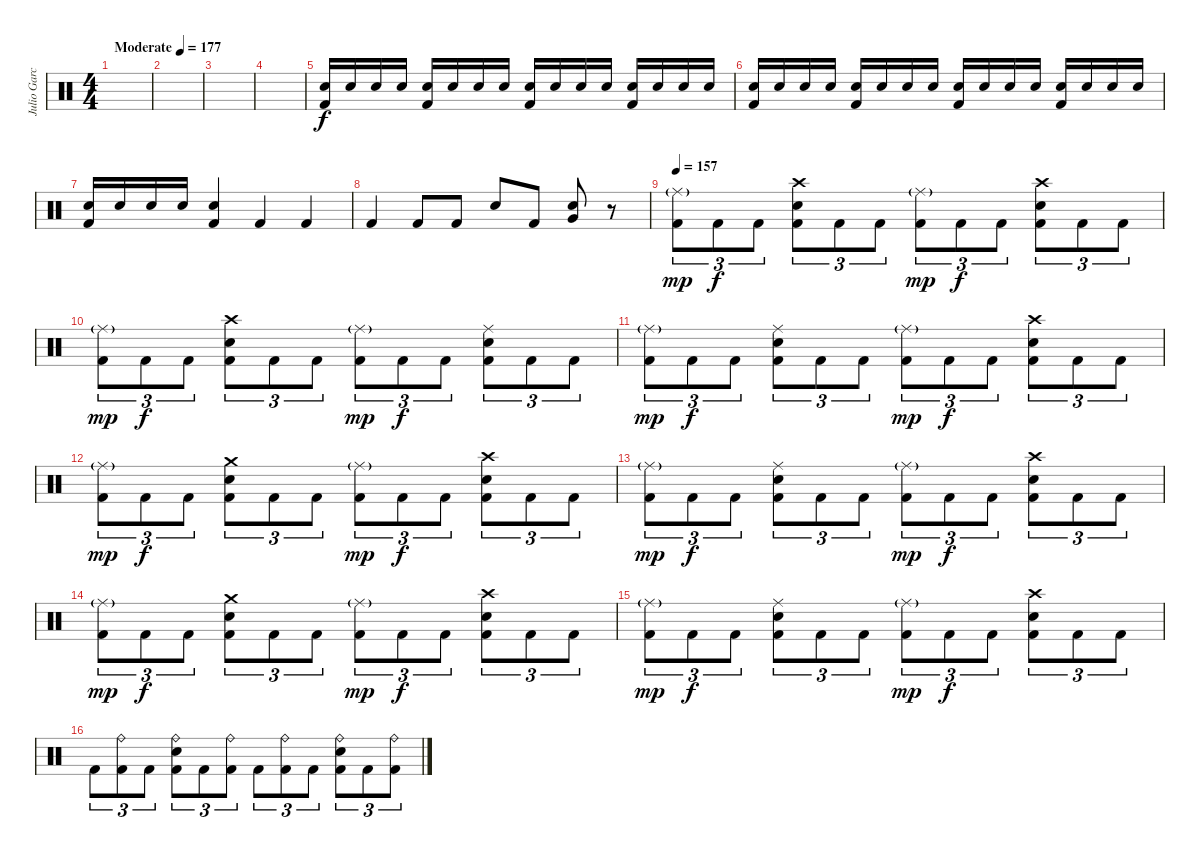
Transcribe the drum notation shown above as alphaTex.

\track ("Julio Garcia" "Julio Garc") {instrument percussion}
\staff {score}
\articulation defaults
\ts (4 4)
\tempo (177 "Moderate")
\clef neutral
\ks c
|
|
|
|
("Electric Snare (hit)" "Kick (hit) 2").16 "Electric Snare (hit)".16 "Electric Snare (hit)".16 "Electric Snare (hit)".16 ("Electric Snare (hit)" "Kick (hit) 2").16 "Electric Snare (hit)".16 "Electric Snare (hit)".16 "Electric Snare (hit)".16 ("Electric Snare (hit)" "Kick (hit) 2").16 "Electric Snare (hit)".16 "Electric Snare (hit)".16 "Electric Snare (hit)".16 ("Electric Snare (hit)" "Kick (hit) 2").16 "Electric Snare (hit)".16 "Electric Snare (hit)".16 "Electric Snare (hit)".16 |
("Electric Snare (hit)" "Kick (hit) 2").16 "Electric Snare (hit)".16 "Electric Snare (hit)".16 "Electric Snare (hit)".16 ("Electric Snare (hit)" "Kick (hit) 2").16 "Electric Snare (hit)".16 "Electric Snare (hit)".16 "Electric Snare (hit)".16 ("Electric Snare (hit)" "Kick (hit) 2").16 "Electric Snare (hit)".16 "Electric Snare (hit)".16 "Electric Snare (hit)".16 ("Electric Snare (hit)" "Kick (hit) 2").16 "Electric Snare (hit)".16 "Electric Snare (hit)".16 "Electric Snare (hit)".16 |
("Electric Snare (hit)" "Kick (hit) 2").16 "Electric Snare (hit)".16 "Electric Snare (hit)".16 "Electric Snare (hit)".16 ("Electric Snare (hit)" "Kick (hit) 2").4 "Kick (hit) 2".4 "Kick (hit) 2".4 |
"Kick (hit) 2".4 "Kick (hit) 2".8 "Kick (hit) 2".8 "Electric Snare (hit)".8 "Kick (hit) 2".8 ("Very Low Tom (hit)" "Electric Snare (hit)").8 r.8 |
\tempo 157
("Ride (middle)"{g} "Kick (hit) 2").8{tu (3 2) dy mp} "Kick (hit) 2".8{tu (3 2) dy f} "Kick (hit) 2".8{tu (3 2)} ("Crash high (hit)" "Electric Snare (hit)" "Kick (hit) 2").8{tu (3 2)} "Kick (hit) 2".8{tu (3 2)} "Kick (hit) 2".8{tu (3 2)} ("Ride (middle)"{g} "Kick (hit) 2").8{tu (3 2) dy mp} "Kick (hit) 2".8{tu (3 2) dy f} "Kick (hit) 2".8{tu (3 2)} ("Crash high (hit)" "Electric Snare (hit)" "Kick (hit) 2").8{tu (3 2)} "Kick (hit) 2".8{tu (3 2)} "Kick (hit) 2".8{tu (3 2)} |
("Ride (middle)"{g} "Kick (hit) 2").8{tu (3 2) dy mp} "Kick (hit) 2".8{tu (3 2) dy f} "Kick (hit) 2".8{tu (3 2)} ("Crash high (hit)" "Electric Snare (hit)" "Kick (hit) 2").8{tu (3 2)} "Kick (hit) 2".8{tu (3 2)} "Kick (hit) 2".8{tu (3 2)} ("Ride (middle)"{g} "Kick (hit) 2").8{tu (3 2) dy mp} "Kick (hit) 2".8{tu (3 2) dy f} "Kick (hit) 2".8{tu (3 2)} ("Ride (middle)" "Electric Snare (hit)" "Kick (hit) 2").8{tu (3 2)} "Kick (hit) 2".8{tu (3 2)} "Kick (hit) 2".8{tu (3 2)} |
("Ride (middle)"{g} "Kick (hit) 2").8{tu (3 2) dy mp} "Kick (hit) 2".8{tu (3 2) dy f} "Kick (hit) 2".8{tu (3 2)} ("Ride (middle)" "Electric Snare (hit)" "Kick (hit) 2").8{tu (3 2)} "Kick (hit) 2".8{tu (3 2)} "Kick (hit) 2".8{tu (3 2)} ("Ride (middle)"{g} "Kick (hit) 2").8{tu (3 2) dy mp} "Kick (hit) 2".8{tu (3 2) dy f} "Kick (hit) 2".8{tu (3 2)} ("Crash high (hit)" "Electric Snare (hit)" "Kick (hit) 2").8{tu (3 2)} "Kick (hit) 2".8{tu (3 2)} "Kick (hit) 2".8{tu (3 2)} |
("Ride (middle)"{g} "Kick (hit) 2").8{tu (3 2) dy mp} "Kick (hit) 2".8{tu (3 2) dy f} "Kick (hit) 2".8{tu (3 2)} ("Crash medium (hit)" "Electric Snare (hit)" "Kick (hit) 2").8{tu (3 2)} "Kick (hit) 2".8{tu (3 2)} "Kick (hit) 2".8{tu (3 2)} ("Ride (middle)"{g} "Kick (hit) 2").8{tu (3 2) dy mp} "Kick (hit) 2".8{tu (3 2) dy f} "Kick (hit) 2".8{tu (3 2)} ("Crash high (hit)" "Electric Snare (hit)" "Kick (hit) 2").8{tu (3 2)} "Kick (hit) 2".8{tu (3 2)} "Kick (hit) 2".8{tu (3 2)} |
("Ride (middle)"{g} "Kick (hit) 2").8{tu (3 2) dy mp} "Kick (hit) 2".8{tu (3 2) dy f} "Kick (hit) 2".8{tu (3 2)} ("Ride (middle)" "Electric Snare (hit)" "Kick (hit) 2").8{tu (3 2)} "Kick (hit) 2".8{tu (3 2)} "Kick (hit) 2".8{tu (3 2)} ("Ride (middle)"{g} "Kick (hit) 2").8{tu (3 2) dy mp} "Kick (hit) 2".8{tu (3 2) dy f} "Kick (hit) 2".8{tu (3 2)} ("Crash high (hit)" "Electric Snare (hit)" "Kick (hit) 2").8{tu (3 2)} "Kick (hit) 2".8{tu (3 2)} "Kick (hit) 2".8{tu (3 2)} |
("Ride (middle)"{g} "Kick (hit) 2").8{tu (3 2) dy mp} "Kick (hit) 2".8{tu (3 2) dy f} "Kick (hit) 2".8{tu (3 2)} ("Crash medium (hit)" "Electric Snare (hit)" "Kick (hit) 2").8{tu (3 2)} "Kick (hit) 2".8{tu (3 2)} "Kick (hit) 2".8{tu (3 2)} ("Ride (middle)"{g} "Kick (hit) 2").8{tu (3 2) dy mp} "Kick (hit) 2".8{tu (3 2) dy f} "Kick (hit) 2".8{tu (3 2)} ("Crash high (hit)" "Electric Snare (hit)" "Kick (hit) 2").8{tu (3 2)} "Kick (hit) 2".8{tu (3 2)} "Kick (hit) 2".8{tu (3 2)} |
("Ride (middle)"{g} "Kick (hit) 2").8{tu (3 2) dy mp} "Kick (hit) 2".8{tu (3 2) dy f} "Kick (hit) 2".8{tu (3 2)} ("Ride (middle)" "Electric Snare (hit)" "Kick (hit) 2").8{tu (3 2)} "Kick (hit) 2".8{tu (3 2)} "Kick (hit) 2".8{tu (3 2)} ("Ride (middle)"{g} "Kick (hit) 2").8{tu (3 2) dy mp} "Kick (hit) 2".8{tu (3 2) dy f} "Kick (hit) 2".8{tu (3 2)} ("Crash high (hit)" "Electric Snare (hit)" "Kick (hit) 2").8{tu (3 2)} "Kick (hit) 2".8{tu (3 2)} "Kick (hit) 2".8{tu (3 2)} |
"Kick (hit) 2".8{tu (3 2)} ("Ride (bell)" "Kick (hit) 2").8{tu (3 2)} "Kick (hit) 2".8{tu (3 2)} ("Ride (bell)" "Electric Snare (hit)" "Kick (hit) 2").8{tu (3 2)} "Kick (hit) 2".8{tu (3 2)} ("Ride (bell)" "Kick (hit) 2").8{tu (3 2)} "Kick (hit) 2".8{tu (3 2)} ("Ride (bell)" "Kick (hit) 2").8{tu (3 2)} "Kick (hit) 2".8{tu (3 2)} ("Ride (bell)" "Electric Snare (hit)" "Kick (hit) 2").8{tu (3 2)} "Kick (hit) 2".8{tu (3 2)} ("Ride (bell)" "Kick (hit) 2").8{tu (3 2)}
